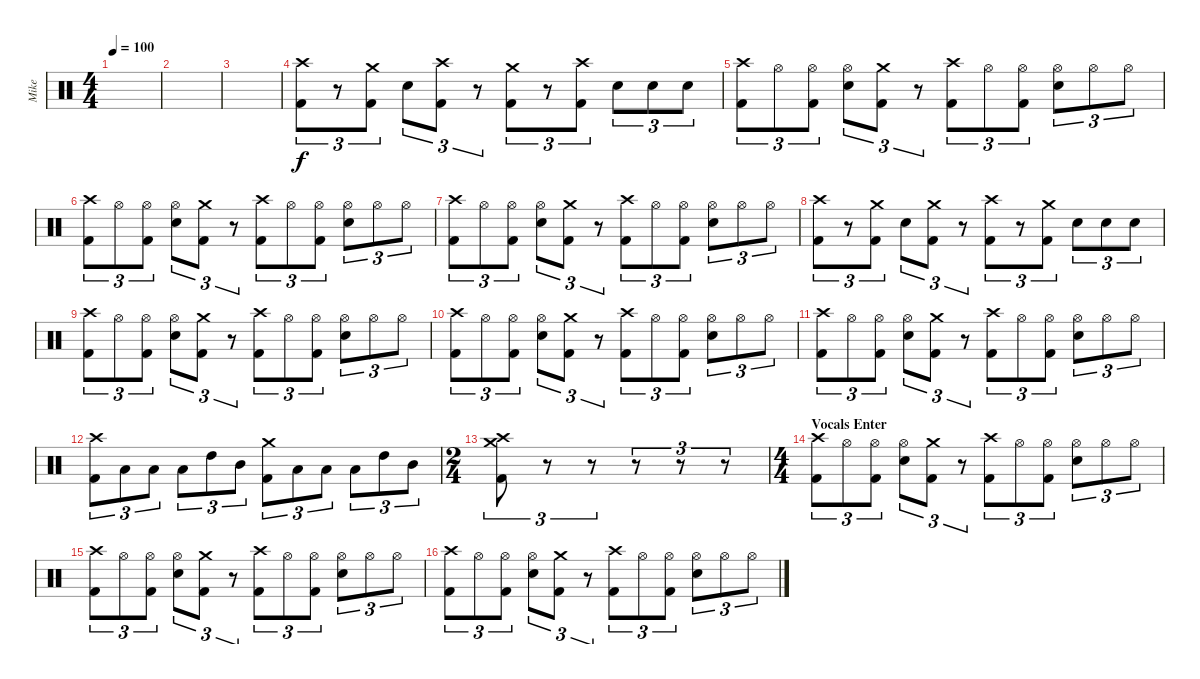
\track ("Mike" "Mike") {instrument percussion}
\staff {score}
\articulation defaults
\ts (4 4)
\tempo 100
\clef neutral
\ks c
|
|
|
("Crash high (hit)" "Kick (hit) 2").8{tu (3 2)} r.8{tu (3 2)} ("Crash medium (hit)" "Kick (hit) 2").8{tu (3 2)} "Electric Snare (hit)".8{tu (3 2)} ("Crash high (hit)" "Kick (hit) 2").8{tu (3 2)} r.8{tu (3 2)} ("Crash medium (hit)" "Kick (hit) 2").8{tu (3 2)} r.8{tu (3 2)} ("Crash high (hit)" "Kick (hit) 2").8{tu (3 2)} "Electric Snare (hit)".8{tu (3 2)} "Electric Snare (hit)".8{tu (3 2)} "Electric Snare (hit)".8{tu (3 2)} |
("Crash high (hit)" "Kick (hit) 2").8{tu (3 2)} "Hi-Hat (open)".8{tu (3 2)} ("Hi-Hat (open)" "Kick (hit) 2").8{tu (3 2)} ("Hi-Hat (open)" "Electric Snare (hit)").8{tu (3 2)} ("Crash medium (hit)" "Kick (hit) 2").8{tu (3 2)} r.8{tu (3 2)} ("Crash high (hit)" "Kick (hit) 2").8{tu (3 2)} "Hi-Hat (open)".8{tu (3 2)} ("Hi-Hat (open)" "Kick (hit) 2").8{tu (3 2)} ("Hi-Hat (open)" "Electric Snare (hit)").8{tu (3 2)} "Hi-Hat (open)".8{tu (3 2)} "Hi-Hat (open)".8{tu (3 2)} |
("Crash high (hit)" "Kick (hit) 2").8{tu (3 2)} "Hi-Hat (open)".8{tu (3 2)} ("Hi-Hat (open)" "Kick (hit) 2").8{tu (3 2)} ("Hi-Hat (open)" "Electric Snare (hit)").8{tu (3 2)} ("Crash medium (hit)" "Kick (hit) 2").8{tu (3 2)} r.8{tu (3 2)} ("Crash high (hit)" "Kick (hit) 2").8{tu (3 2)} "Hi-Hat (open)".8{tu (3 2)} ("Hi-Hat (open)" "Kick (hit) 2").8{tu (3 2)} ("Hi-Hat (open)" "Electric Snare (hit)").8{tu (3 2)} "Hi-Hat (open)".8{tu (3 2)} "Hi-Hat (open)".8{tu (3 2)} |
("Crash high (hit)" "Kick (hit) 2").8{tu (3 2)} "Hi-Hat (open)".8{tu (3 2)} ("Hi-Hat (open)" "Kick (hit) 2").8{tu (3 2)} ("Hi-Hat (open)" "Electric Snare (hit)").8{tu (3 2)} ("Crash medium (hit)" "Kick (hit) 2").8{tu (3 2)} r.8{tu (3 2)} ("Crash high (hit)" "Kick (hit) 2").8{tu (3 2)} "Hi-Hat (open)".8{tu (3 2)} ("Hi-Hat (open)" "Kick (hit) 2").8{tu (3 2)} ("Hi-Hat (open)" "Electric Snare (hit)").8{tu (3 2)} "Hi-Hat (open)".8{tu (3 2)} "Hi-Hat (open)".8{tu (3 2)} |
("Crash high (hit)" "Kick (hit) 2").8{tu (3 2)} r.8{tu (3 2)} ("Crash medium (hit)" "Kick (hit) 2").8{tu (3 2)} "Electric Snare (hit)".8{tu (3 2)} ("Crash medium (hit)" "Kick (hit) 2").8{tu (3 2)} r.8{tu (3 2)} ("Crash high (hit)" "Kick (hit) 2").8{tu (3 2)} r.8{tu (3 2)} ("Crash medium (hit)" "Kick (hit) 2").8{tu (3 2)} "Electric Snare (hit)".8{tu (3 2)} "Electric Snare (hit)".8{tu (3 2)} "Electric Snare (hit)".8{tu (3 2)} |
("Crash high (hit)" "Kick (hit) 2").8{tu (3 2)} "Hi-Hat (open)".8{tu (3 2)} ("Hi-Hat (open)" "Kick (hit) 2").8{tu (3 2)} ("Hi-Hat (open)" "Electric Snare (hit)").8{tu (3 2)} ("Crash medium (hit)" "Kick (hit) 2").8{tu (3 2)} r.8{tu (3 2)} ("Crash high (hit)" "Kick (hit) 2").8{tu (3 2)} "Hi-Hat (open)".8{tu (3 2)} ("Hi-Hat (open)" "Kick (hit) 2").8{tu (3 2)} ("Hi-Hat (open)" "Electric Snare (hit)").8{tu (3 2)} "Hi-Hat (open)".8{tu (3 2)} "Hi-Hat (open)".8{tu (3 2)} |
("Crash high (hit)" "Kick (hit) 2").8{tu (3 2)} "Hi-Hat (open)".8{tu (3 2)} ("Hi-Hat (open)" "Kick (hit) 2").8{tu (3 2)} ("Hi-Hat (open)" "Electric Snare (hit)").8{tu (3 2)} ("Crash medium (hit)" "Kick (hit) 2").8{tu (3 2)} r.8{tu (3 2)} ("Crash high (hit)" "Kick (hit) 2").8{tu (3 2)} "Hi-Hat (open)".8{tu (3 2)} ("Hi-Hat (open)" "Kick (hit) 2").8{tu (3 2)} ("Hi-Hat (open)" "Electric Snare (hit)").8{tu (3 2)} "Hi-Hat (open)".8{tu (3 2)} "Hi-Hat (open)".8{tu (3 2)} |
("Crash high (hit)" "Kick (hit) 2").8{tu (3 2)} "Hi-Hat (open)".8{tu (3 2)} ("Hi-Hat (open)" "Kick (hit) 2").8{tu (3 2)} ("Hi-Hat (open)" "Electric Snare (hit)").8{tu (3 2)} ("Crash medium (hit)" "Kick (hit) 2").8{tu (3 2)} r.8{tu (3 2)} ("Crash high (hit)" "Kick (hit) 2").8{tu (3 2)} "Hi-Hat (open)".8{tu (3 2)} ("Hi-Hat (open)" "Kick (hit) 2").8{tu (3 2)} ("Hi-Hat (open)" "Electric Snare (hit)").8{tu (3 2)} "Hi-Hat (open)".8{tu (3 2)} "Hi-Hat (open)".8{tu (3 2)} |
("Crash high (hit)" "Kick (hit) 2").8{tu (3 2)} "Low Tom (hit)".8{tu (3 2)} "Low Tom (hit)".8{tu (3 2)} "Low Tom (hit)".8{tu (3 2)} "High Tom (hit)".8{tu (3 2)} "Mid Tom (hit)".8{tu (3 2)} ("Crash medium (hit)" "Kick (hit) 2").8{tu (3 2)} "Low Tom (hit)".8{tu (3 2)} "Low Tom (hit)".8{tu (3 2)} "Low Tom (hit)".8{tu (3 2)} "High Tom (hit)".8{tu (3 2)} "Mid Tom (hit)".8{tu (3 2)} |
\ts (2 4)
("Crash medium (hit)" "Crash high (hit)" "Kick (hit) 2").8{tu (3 2)} r.8{tu (3 2)} r.8{tu (3 2)} r.8{tu (3 2)} r.8{tu (3 2)} r.8{tu (3 2)} |
\ts (4 4)
\section ("" "Vocals Enter")
("Crash high (hit)" "Kick (hit) 2").8{tu (3 2)} "Hi-Hat (open)".8{tu (3 2)} ("Hi-Hat (open)" "Kick (hit) 2").8{tu (3 2)} ("Hi-Hat (open)" "Electric Snare (hit)").8{tu (3 2)} ("Crash medium (hit)" "Kick (hit) 2").8{tu (3 2)} r.8{tu (3 2)} ("Crash high (hit)" "Kick (hit) 2").8{tu (3 2)} "Hi-Hat (open)".8{tu (3 2)} ("Hi-Hat (open)" "Kick (hit) 2").8{tu (3 2)} ("Hi-Hat (open)" "Electric Snare (hit)").8{tu (3 2)} "Hi-Hat (open)".8{tu (3 2)} "Hi-Hat (open)".8{tu (3 2)} |
("Crash high (hit)" "Kick (hit) 2").8{tu (3 2)} "Hi-Hat (open)".8{tu (3 2)} ("Hi-Hat (open)" "Kick (hit) 2").8{tu (3 2)} ("Hi-Hat (open)" "Electric Snare (hit)").8{tu (3 2)} ("Crash medium (hit)" "Kick (hit) 2").8{tu (3 2)} r.8{tu (3 2)} ("Crash high (hit)" "Kick (hit) 2").8{tu (3 2)} "Hi-Hat (open)".8{tu (3 2)} ("Hi-Hat (open)" "Kick (hit) 2").8{tu (3 2)} ("Hi-Hat (open)" "Electric Snare (hit)").8{tu (3 2)} "Hi-Hat (open)".8{tu (3 2)} "Hi-Hat (open)".8{tu (3 2)} |
("Crash high (hit)" "Kick (hit) 2").8{tu (3 2)} "Hi-Hat (open)".8{tu (3 2)} ("Hi-Hat (open)" "Kick (hit) 2").8{tu (3 2)} ("Hi-Hat (open)" "Electric Snare (hit)").8{tu (3 2)} ("Crash medium (hit)" "Kick (hit) 2").8{tu (3 2)} r.8{tu (3 2)} ("Crash high (hit)" "Kick (hit) 2").8{tu (3 2)} "Hi-Hat (open)".8{tu (3 2)} ("Hi-Hat (open)" "Kick (hit) 2").8{tu (3 2)} ("Hi-Hat (open)" "Electric Snare (hit)").8{tu (3 2)} "Hi-Hat (open)".8{tu (3 2)} "Hi-Hat (open)".8{tu (3 2)}
